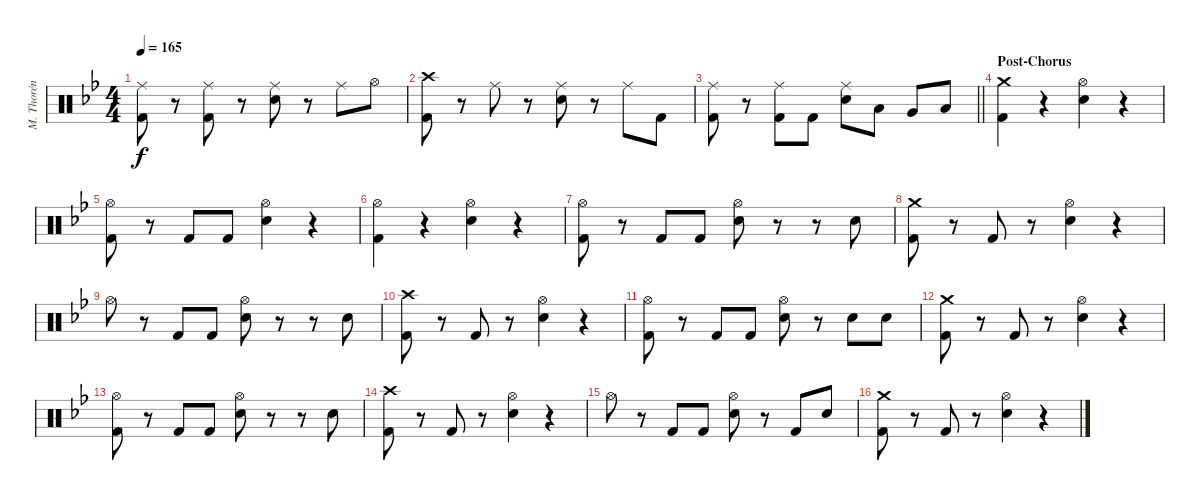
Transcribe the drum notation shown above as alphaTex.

\track ("M. Thorén (Drums)" "M. Thorén ") {instrument percussion}
\staff {score}
\articulation defaults
\ts (4 4)
\tempo 165
\clef neutral
\ks gminor
("Ride (middle)" "Kick (hit) 2").8{dy f} r.8 ("Ride (middle)" "Kick (hit) 2").8 r.8 ("Ride (middle)" "Electric Snare (hit)").8 r.8 "Ride (middle)".8 "Hi-Hat (open)".8 |
("Crash high (hit)" "Kick (hit) 2").8 r.8 "Ride (middle)".8 r.8 ("Ride (middle)" "Electric Snare (hit)").8 r.8 "Ride (middle)".8 "Kick (hit) 2".8 |
\barLineRight lightlight
("Ride (middle)" "Kick (hit) 2").8 r.8 ("Ride (middle)" "Kick (hit) 2").8 "Kick (hit) 2".8 ("Ride (middle)" "Electric Snare (hit)").8 "Low Tom (hit)".8 "Very Low Tom (hit)".8 "Low Floor Tom (hit)".8 |
\section ("" "Post-Chorus")
("Crash medium (hit)" "Kick (hit) 2").4 r.4 ("Hi-Hat (open)" "Electric Snare (hit)").4 r.4 |
("Hi-Hat (open)" "Kick (hit) 2").8 r.8 "Kick (hit) 2".8 "Kick (hit) 2".8 ("Hi-Hat (open)" "Electric Snare (hit)").4 r.4 |
("Hi-Hat (open)" "Kick (hit) 2").4 r.4 ("Hi-Hat (open)" "Electric Snare (hit)").4 r.4 |
("Hi-Hat (open)" "Kick (hit) 2").8 r.8 "Kick (hit) 2".8 "Kick (hit) 2".8 ("Hi-Hat (open)" "Electric Snare (hit)").8 r.8 r.8 "Electric Snare (hit)".8 |
("Crash medium (hit)" "Kick (hit) 2").8 r.8 "Kick (hit) 2".8 r.8 ("Hi-Hat (open)" "Electric Snare (hit)").4 r.4 |
"Hi-Hat (open)".8 r.8 "Kick (hit) 2".8 "Kick (hit) 2".8 ("Hi-Hat (open)" "Electric Snare (hit)").8 r.8 r.8 "Electric Snare (hit)".8 |
("Crash high (hit)" "Kick (hit) 2").8 r.8 "Kick (hit) 2".8 r.8 ("Hi-Hat (open)" "Electric Snare (hit)").4 r.4 |
("Hi-Hat (open)" "Kick (hit) 2").8 r.8 "Kick (hit) 2".8 "Kick (hit) 2".8 ("Hi-Hat (open)" "Electric Snare (hit)").8 r.8 "Electric Snare (hit)".8 "Electric Snare (hit)".8 |
("Crash medium (hit)" "Kick (hit) 2").8 r.8 "Kick (hit) 2".8 r.8 ("Hi-Hat (open)" "Electric Snare (hit)").4 r.4 |
("Hi-Hat (open)" "Kick (hit) 2").8 r.8 "Kick (hit) 2".8 "Kick (hit) 2".8 ("Hi-Hat (open)" "Electric Snare (hit)").8 r.8 r.8 "Electric Snare (hit)".8 |
("Crash high (hit)" "Kick (hit) 2").8 r.8 "Kick (hit) 2".8 r.8 ("Hi-Hat (open)" "Electric Snare (hit)").4 r.4 |
"Hi-Hat (open)".8 r.8 "Kick (hit) 2".8 "Kick (hit) 2".8 ("Hi-Hat (open)" "Electric Snare (hit)").8 r.8 "Kick (hit) 2".8 "Electric Snare (hit)".8 |
("Crash medium (hit)" "Kick (hit) 2").8 r.8 "Kick (hit) 2".8 r.8 ("Hi-Hat (open)" "Electric Snare (hit)").4 r.4
